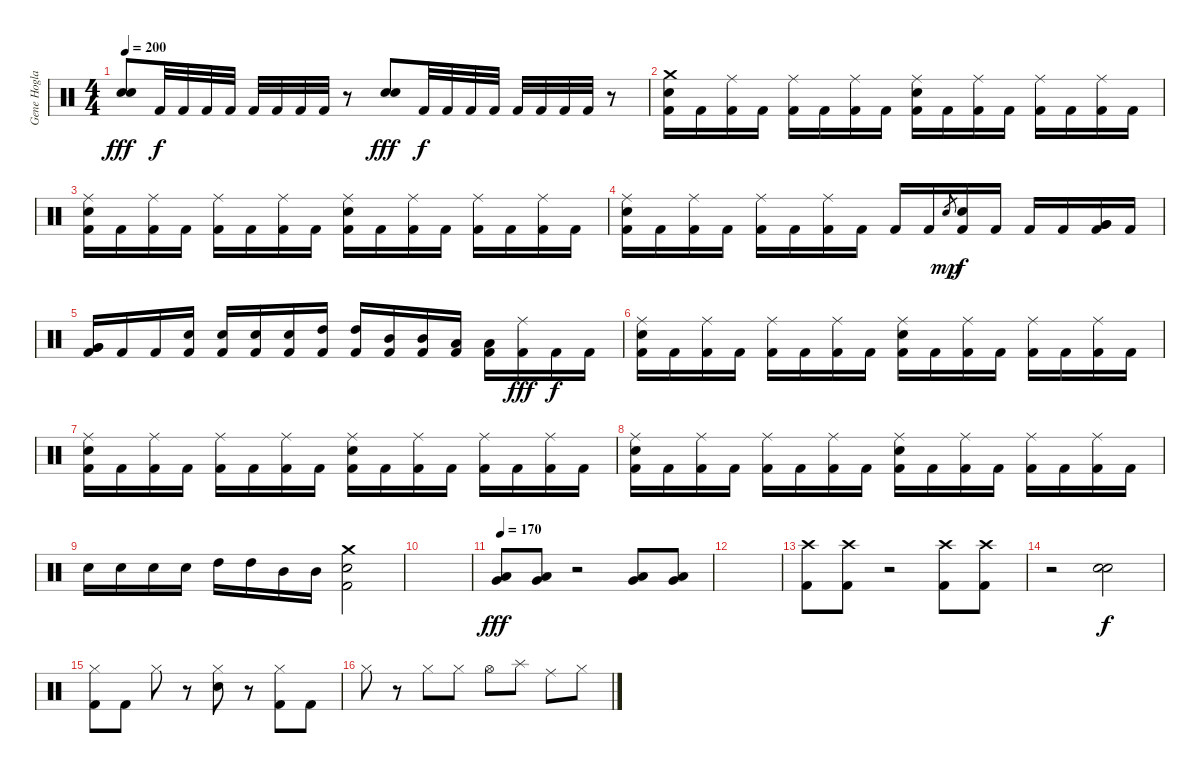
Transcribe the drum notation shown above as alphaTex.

\track ("Gene Hoglan" "Gene Hogla") {instrument percussion}
\staff {score}
\articulation defaults
\ts (4 4)
\tempo 200
\clef neutral
\ks c
("Snare (hit) 2" "Snare (hit) 2").8{dy fff} "Kick (hit) 2".32{dy f} "Kick (hit) 2".32 "Kick (hit) 2".32 "Kick (hit) 2".32 "Kick (hit) 2".32 "Kick (hit) 2".32 "Kick (hit) 2".32 "Kick (hit) 2".32 r.8 ("Snare (hit) 2" "Snare (hit) 2").8{dy fff} "Kick (hit) 2".32{dy f} "Kick (hit) 2".32 "Kick (hit) 2".32 "Kick (hit) 2".32 "Kick (hit) 2".32 "Kick (hit) 2".32 "Kick (hit) 2".32 "Kick (hit) 2".32 r.8 |
("Crash medium (hit)" "Snare (hit) 2" "Kick (hit) 2").16 "Kick (hit) 2".16 ("Ride (middle)" "Kick (hit) 2").16 "Kick (hit) 2".16 ("Ride (middle)" "Kick (hit) 2").16 "Kick (hit) 2".16 ("Ride (middle)" "Kick (hit) 2").16 "Kick (hit) 2".16 ("Ride (middle)" "Snare (hit) 2" "Kick (hit) 2").16 "Kick (hit) 2".16 ("Ride (middle)" "Kick (hit) 2").16 "Kick (hit) 2".16 ("Ride (middle)" "Kick (hit) 2").16 "Kick (hit) 2".16 ("Ride (middle)" "Kick (hit) 2").16 "Kick (hit) 2".16 |
("Ride (middle)" "Snare (hit) 2" "Kick (hit) 2").16 "Kick (hit) 2".16 ("Ride (middle)" "Kick (hit) 2").16 "Kick (hit) 2".16 ("Ride (middle)" "Kick (hit) 2").16 "Kick (hit) 2".16 ("Ride (middle)" "Kick (hit) 2").16 "Kick (hit) 2".16 ("Ride (middle)" "Snare (hit) 2" "Kick (hit) 2").16 "Kick (hit) 2".16 ("Ride (middle)" "Kick (hit) 2").16 "Kick (hit) 2".16 ("Ride (middle)" "Kick (hit) 2").16 "Kick (hit) 2".16 ("Ride (middle)" "Kick (hit) 2").16 "Kick (hit) 2".16 |
("Ride (middle)" "Snare (hit) 2" "Kick (hit) 2").16 "Kick (hit) 2".16 ("Ride (middle)" "Kick (hit) 2").16 "Kick (hit) 2".16 ("Ride (middle)" "Kick (hit) 2").16 "Kick (hit) 2".16 ("Ride (middle)" "Kick (hit) 2").16 "Kick (hit) 2".16 "Kick (hit) 2".16 "Kick (hit) 2".16 "Snare (hit) 2".8{gr dy mp} ("Snare (hit) 2" "Kick (hit) 2").16{dy f} "Kick (hit) 2".16 "Kick (hit) 2".16 "Kick (hit) 2".16 ("Very Low Tom (hit)" "Very Low Tom (hit)" "Kick (hit) 2").16 "Kick (hit) 2".16 |
("Very Low Tom (hit)" "Very Low Tom (hit)" "Kick (hit) 2").16 "Kick (hit) 2".16 "Kick (hit) 2".16 ("Snare (hit) 2" "Kick (hit) 2").16 ("Snare (hit) 2" "Kick (hit) 2").16 ("Snare (hit) 2" "Kick (hit) 2").16 ("Snare (hit) 2" "Kick (hit) 2").16 ("High Tom (hit)" "Kick (hit) 2").16 ("High Tom (hit)" "Kick (hit) 2").16 ("Mid Tom (hit)" "Kick (hit) 2").16 ("Mid Tom (hit)" "Kick (hit) 2").16 ("Low Tom (hit)" "Kick (hit) 2").16 ("Low Tom (hit)" "Kick (hit) 2").16 ("Ride (middle)" "Kick (hit) 2").16{dy fff} "Kick (hit) 2".16{dy f} "Kick (hit) 2".16 |
("Ride (middle)" "Snare (hit) 2" "Kick (hit) 2").16 "Kick (hit) 2".16 ("Ride (middle)" "Kick (hit) 2").16 "Kick (hit) 2".16 ("Ride (middle)" "Kick (hit) 2").16 "Kick (hit) 2".16 ("Ride (middle)" "Kick (hit) 2").16 "Kick (hit) 2".16 ("Ride (middle)" "Snare (hit) 2" "Kick (hit) 2").16 "Kick (hit) 2".16 ("Ride (middle)" "Kick (hit) 2").16 "Kick (hit) 2".16 ("Ride (middle)" "Kick (hit) 2").16 "Kick (hit) 2".16 ("Ride (middle)" "Kick (hit) 2").16 "Kick (hit) 2".16 |
("Ride (middle)" "Snare (hit) 2" "Kick (hit) 2").16 "Kick (hit) 2".16 ("Ride (middle)" "Kick (hit) 2").16 "Kick (hit) 2".16 ("Ride (middle)" "Kick (hit) 2").16 "Kick (hit) 2".16 ("Ride (middle)" "Kick (hit) 2").16 "Kick (hit) 2".16 ("Ride (middle)" "Snare (hit) 2" "Kick (hit) 2").16 "Kick (hit) 2".16 ("Ride (middle)" "Kick (hit) 2").16 "Kick (hit) 2".16 ("Ride (middle)" "Kick (hit) 2").16 "Kick (hit) 2".16 ("Ride (middle)" "Kick (hit) 2").16 "Kick (hit) 2".16 |
("Ride (middle)" "Snare (hit) 2" "Kick (hit) 2").16 "Kick (hit) 2".16 ("Ride (middle)" "Kick (hit) 2").16 "Kick (hit) 2".16 ("Ride (middle)" "Kick (hit) 2").16 "Kick (hit) 2".16 ("Ride (middle)" "Kick (hit) 2").16 "Kick (hit) 2".16 ("Ride (middle)" "Snare (hit) 2" "Kick (hit) 2").16 "Kick (hit) 2".16 ("Ride (middle)" "Kick (hit) 2").16 "Kick (hit) 2".16 ("Ride (middle)" "Kick (hit) 2").16 "Kick (hit) 2".16 ("Ride (middle)" "Kick (hit) 2").16 "Kick (hit) 2".16 |
"Snare (hit) 2".16 "Snare (hit) 2".16 "Snare (hit) 2".16 "Snare (hit) 2".16 "High Tom (hit)".16 "High Tom (hit)".16 "Mid Tom (hit)".16 "Mid Tom (hit)".16 ("Crash medium (hit)" "Snare (hit) 2" "Kick (hit) 2").2 |
|
\tempo 170
("Low Floor Tom (hit)" "Very Low Tom (hit)").8{dy fff} ("Low Floor Tom (hit)" "Very Low Tom (hit)").8 r.2 ("Low Floor Tom (hit)" "Very Low Tom (hit)").8 ("Low Floor Tom (hit)" "Very Low Tom (hit)").8 |
|
("Crash high (hit)" "Kick (hit) 2").8 ("Crash high (hit)" "Kick (hit) 2").8 r.2 ("Crash high (hit)" "Kick (hit) 2").8 ("Crash high (hit)" "Kick (hit) 2").8 |
r.2 ("Snare (hit) 2" "Snare (hit) 2").2{dy f} |
("Hi-Hat (closed)" "Kick (hit) 2").8 "Kick (hit) 2".8 "Hi-Hat (closed)".8 r.8 ("Hi-Hat (closed)" "Snare (hit) 2").8 r.8 ("Hi-Hat (closed)" "Kick (hit) 2").8 "Kick (hit) 2".8 |
"Hi-Hat (closed)".8 r.8 "Hi-Hat (closed)".8 "Hi-Hat (closed)".8 "Hi-Hat (open)".8 "Splash (hit)".8 "Ride (middle)".8 "Hi-Hat (closed)".8
